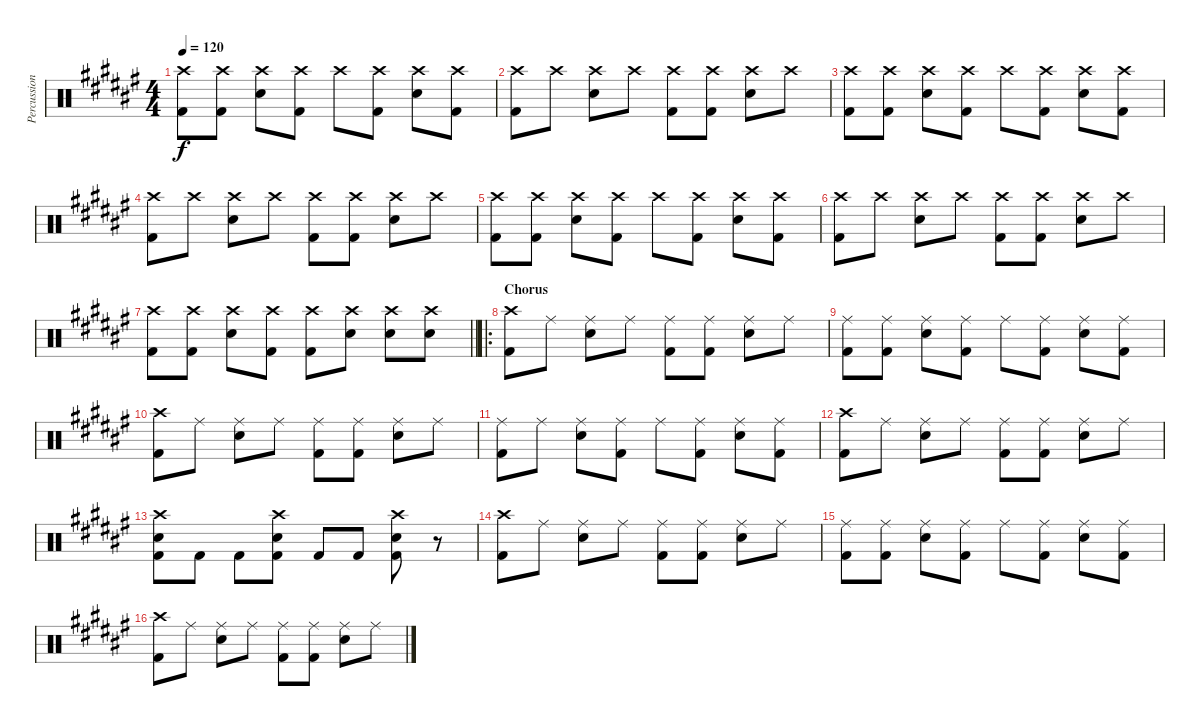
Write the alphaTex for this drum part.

\track ("Percussion" "Percussion") {instrument percussion}
\staff {score}
\articulation defaults
\ts (4 4)
\tempo 120
\clef neutral
\ks f#
("Crash high (hit)" "Kick (hit) 2").8{dy f} ("Crash high (hit)" "Kick (hit) 2").8 ("Crash high (hit)" "Electric Snare (hit)").8 ("Crash high (hit)" "Kick (hit) 2").8 "Crash high (hit)".8 ("Crash high (hit)" "Kick (hit) 2").8 ("Crash high (hit)" "Electric Snare (hit)").8 ("Crash high (hit)" "Kick (hit) 2").8 |
("Crash high (hit)" "Kick (hit) 2").8 "Crash high (hit)".8 ("Crash high (hit)" "Electric Snare (hit)").8 "Crash high (hit)".8 ("Crash high (hit)" "Kick (hit) 2").8 ("Crash high (hit)" "Kick (hit) 2").8 ("Crash high (hit)" "Electric Snare (hit)").8 "Crash high (hit)".8 |
("Crash high (hit)" "Kick (hit) 2").8 ("Crash high (hit)" "Kick (hit) 2").8 ("Crash high (hit)" "Electric Snare (hit)").8 ("Crash high (hit)" "Kick (hit) 2").8 "Crash high (hit)".8 ("Crash high (hit)" "Kick (hit) 2").8 ("Crash high (hit)" "Electric Snare (hit)").8 ("Crash high (hit)" "Kick (hit) 2").8 |
("Crash high (hit)" "Kick (hit) 2").8 "Crash high (hit)".8 ("Crash high (hit)" "Electric Snare (hit)").8 "Crash high (hit)".8 ("Crash high (hit)" "Kick (hit) 2").8 ("Crash high (hit)" "Kick (hit) 2").8 ("Crash high (hit)" "Electric Snare (hit)").8 "Crash high (hit)".8 |
("Crash high (hit)" "Kick (hit) 2").8 ("Crash high (hit)" "Kick (hit) 2").8 ("Crash high (hit)" "Electric Snare (hit)").8 ("Crash high (hit)" "Kick (hit) 2").8 "Crash high (hit)".8 ("Crash high (hit)" "Kick (hit) 2").8 ("Crash high (hit)" "Electric Snare (hit)").8 ("Crash high (hit)" "Kick (hit) 2").8 |
("Crash high (hit)" "Kick (hit) 2").8 "Crash high (hit)".8 ("Crash high (hit)" "Electric Snare (hit)").8 "Crash high (hit)".8 ("Crash high (hit)" "Kick (hit) 2").8 ("Crash high (hit)" "Kick (hit) 2").8 ("Crash high (hit)" "Electric Snare (hit)").8 "Crash high (hit)".8 |
\barLineRight lightlight
("Crash high (hit)" "Kick (hit) 2").8 ("Crash high (hit)" "Kick (hit) 2").8 ("Crash high (hit)" "Electric Snare (hit)").8 ("Crash high (hit)" "Kick (hit) 2").8 ("Crash high (hit)" "Kick (hit) 2").8 ("Crash high (hit)" "Electric Snare (hit)").8 ("Crash high (hit)" "Electric Snare (hit)").8 ("Crash high (hit)" "Electric Snare (hit)").8 |
\ro
\section ("" "Chorus")
("Crash high (hit)" "Kick (hit) 2").8 "Ride (middle)".8 ("Ride (middle)" "Electric Snare (hit)").8 "Ride (middle)".8 ("Ride (middle)" "Kick (hit) 2").8 ("Ride (middle)" "Kick (hit) 2").8 ("Ride (middle)" "Electric Snare (hit)").8 "Ride (middle)".8 |
("Ride (middle)" "Kick (hit) 2").8 ("Ride (middle)" "Kick (hit) 2").8 ("Ride (middle)" "Electric Snare (hit)").8 ("Ride (middle)" "Kick (hit) 2").8 "Ride (middle)".8 ("Ride (middle)" "Kick (hit) 2").8 ("Ride (middle)" "Electric Snare (hit)").8 ("Ride (middle)" "Kick (hit) 2").8 |
("Crash high (hit)" "Kick (hit) 2").8 "Ride (middle)".8 ("Ride (middle)" "Electric Snare (hit)").8 "Ride (middle)".8 ("Ride (middle)" "Kick (hit) 2").8 ("Ride (middle)" "Kick (hit) 2").8 ("Ride (middle)" "Electric Snare (hit)").8 "Ride (middle)".8 |
("Ride (middle)" "Kick (hit) 2").8 "Ride (middle)".8 ("Ride (middle)" "Electric Snare (hit)").8 ("Ride (middle)" "Kick (hit) 2").8 "Ride (middle)".8 ("Ride (middle)" "Kick (hit) 2").8 ("Ride (middle)" "Electric Snare (hit)").8 ("Ride (middle)" "Kick (hit) 2").8 |
("Crash high (hit)" "Kick (hit) 2").8 "Ride (middle)".8 ("Ride (middle)" "Electric Snare (hit)").8 "Ride (middle)".8 ("Ride (middle)" "Kick (hit) 2").8 ("Ride (middle)" "Kick (hit) 2").8 ("Ride (middle)" "Electric Snare (hit)").8 "Ride (middle)".8 |
("Crash high (hit)" "Electric Snare (hit)" "Kick (hit) 2").8 "Kick (hit) 2".8 "Kick (hit) 2".8 ("Crash high (hit)" "Electric Snare (hit)" "Kick (hit) 2").8 "Kick (hit) 2".8 "Kick (hit) 2".8 ("Crash high (hit)" "Electric Snare (hit)" "Kick (hit) 2").8 r.8 |
("Crash high (hit)" "Kick (hit) 2").8 "Ride (middle)".8 ("Ride (middle)" "Electric Snare (hit)").8 "Ride (middle)".8 ("Ride (middle)" "Kick (hit) 2").8 ("Ride (middle)" "Kick (hit) 2").8 ("Ride (middle)" "Electric Snare (hit)").8 "Ride (middle)".8 |
("Ride (middle)" "Kick (hit) 2").8 ("Ride (middle)" "Kick (hit) 2").8 ("Ride (middle)" "Electric Snare (hit)").8 ("Ride (middle)" "Kick (hit) 2").8 "Ride (middle)".8 ("Ride (middle)" "Kick (hit) 2").8 ("Ride (middle)" "Electric Snare (hit)").8 ("Ride (middle)" "Kick (hit) 2").8 |
("Crash high (hit)" "Kick (hit) 2").8 "Ride (middle)".8 ("Ride (middle)" "Electric Snare (hit)").8 "Ride (middle)".8 ("Ride (middle)" "Kick (hit) 2").8 ("Ride (middle)" "Kick (hit) 2").8 ("Ride (middle)" "Electric Snare (hit)").8 "Ride (middle)".8
